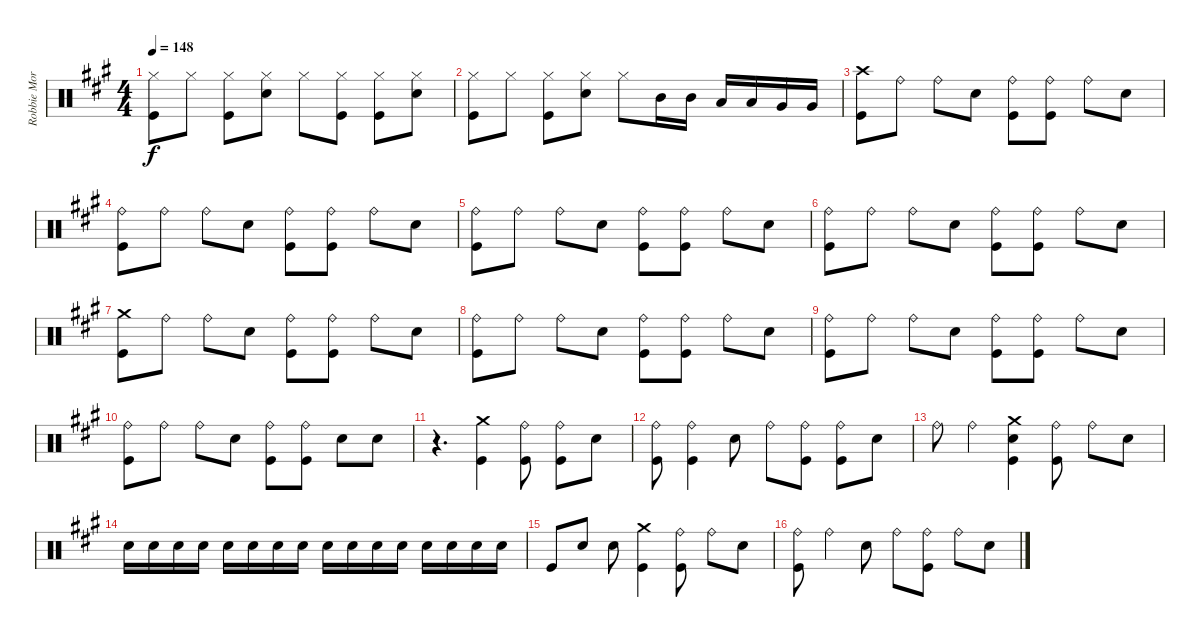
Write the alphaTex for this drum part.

\track ("Robbie Morris Drums" "Robbie Mor") {instrument percussion}
\staff {score}
\articulation defaults
\ts (4 4)
\tempo 148
\clef neutral
\ks a
("Hi-Hat (closed)" "Kick (hit)").8{dy f} "Hi-Hat (closed)".8 ("Hi-Hat (closed)" "Kick (hit)").8 ("Hi-Hat (closed)" "Snare (hit) 2").8 "Hi-Hat (closed)".8 ("Hi-Hat (closed)" "Kick (hit)").8 ("Hi-Hat (closed)" "Kick (hit)").8 ("Hi-Hat (closed)" "Snare (hit) 2").8 |
("Hi-Hat (closed)" "Kick (hit)").8 "Hi-Hat (closed)".8 ("Hi-Hat (closed)" "Kick (hit)").8 ("Hi-Hat (closed)" "Snare (hit) 2").8 "Hi-Hat (closed)".8 "Mid Tom (hit)".16 "Mid Tom (hit)".16 "Low Tom (hit)".16 "Low Tom (hit)".16 "Very Low Tom (hit)".16 "Very Low Tom (hit)".16 |
("Crash high (hit)" "Kick (hit)").8 "Ride (bell)".8 "Ride (bell)".8 "Snare (hit) 2".8 ("Ride (bell)" "Kick (hit)").8 ("Ride (bell)" "Kick (hit)").8 "Ride (bell)".8 "Snare (hit) 2".8 |
("Ride (bell)" "Kick (hit)").8 "Ride (bell)".8 "Ride (bell)".8 "Snare (hit) 2".8 ("Ride (bell)" "Kick (hit)").8 ("Ride (bell)" "Kick (hit)").8 "Ride (bell)".8 "Snare (hit) 2".8 |
("Ride (bell)" "Kick (hit)").8 "Ride (bell)".8 "Ride (bell)".8 "Snare (hit) 2".8 ("Ride (bell)" "Kick (hit)").8 ("Ride (bell)" "Kick (hit)").8 "Ride (bell)".8 "Snare (hit) 2".8 |
("Ride (bell)" "Kick (hit)").8 "Ride (bell)".8 "Ride (bell)".8 "Snare (hit) 2".8 ("Ride (bell)" "Kick (hit)").8 ("Ride (bell)" "Kick (hit)").8 "Ride (bell)".8 "Snare (hit) 2".8 |
("Crash medium (hit)" "Kick (hit)").8 "Ride (bell)".8 "Ride (bell)".8 "Snare (hit) 2".8 ("Ride (bell)" "Kick (hit)").8 ("Ride (bell)" "Kick (hit)").8 "Ride (bell)".8 "Snare (hit) 2".8 |
("Ride (bell)" "Kick (hit)").8 "Ride (bell)".8 "Ride (bell)".8 "Snare (hit) 2".8 ("Ride (bell)" "Kick (hit)").8 ("Ride (bell)" "Kick (hit)").8 "Ride (bell)".8 "Snare (hit) 2".8 |
("Ride (bell)" "Kick (hit)").8 "Ride (bell)".8 "Ride (bell)".8 "Snare (hit) 2".8 ("Ride (bell)" "Kick (hit)").8 ("Ride (bell)" "Kick (hit)").8 "Ride (bell)".8 "Snare (hit) 2".8 |
("Ride (bell)" "Kick (hit)").8 "Ride (bell)".8 "Ride (bell)".8 "Snare (hit) 2".8 ("Ride (bell)" "Kick (hit)").8 ("Ride (bell)" "Kick (hit)").8 "Snare (hit) 2".8 "Snare (hit) 2".8 |
r.4{d} ("Crash medium (hit)" "Kick (hit)").4 ("Ride (bell)" "Kick (hit)").8 ("Ride (bell)" "Kick (hit)").8 "Snare (hit) 2".8 |
("Ride (bell)" "Kick (hit)").8 ("Ride (bell)" "Kick (hit)").4 "Snare (hit) 2".8 "Ride (bell)".8 ("Ride (bell)" "Kick (hit)").8 ("Ride (bell)" "Kick (hit)").8 "Snare (hit) 2".8 |
"Ride (bell)".8 "Ride (bell)".4 ("Crash medium (hit)" "Snare (hit) 2" "Kick (hit)").4 ("Ride (bell)" "Kick (hit)").8 "Ride (bell)".8 "Snare (hit) 2".8 |
"Snare (hit) 2".16 "Snare (hit) 2".16 "Snare (hit) 2".16 "Snare (hit) 2".16 "Snare (hit) 2".16 "Snare (hit) 2".16 "Snare (hit) 2".16 "Snare (hit) 2".16 "Snare (hit) 2".16 "Snare (hit) 2".16 "Snare (hit) 2".16 "Snare (hit) 2".16 "Snare (hit) 2".16 "Snare (hit) 2".16 "Snare (hit) 2".16 "Snare (hit) 2".16 |
"Kick (hit)".8 "Snare (hit) 2".8 "Snare (hit) 2".8 ("Crash medium (hit)" "Kick (hit)").4 ("Ride (bell)" "Kick (hit)").8 "Ride (bell)".8 "Snare (hit) 2".8 |
("Ride (bell)" "Kick (hit)").8 "Ride (bell)".4 "Snare (hit) 2".8 "Ride (bell)".8 ("Ride (bell)" "Kick (hit)").8 "Ride (bell)".8 "Snare (hit) 2".8
